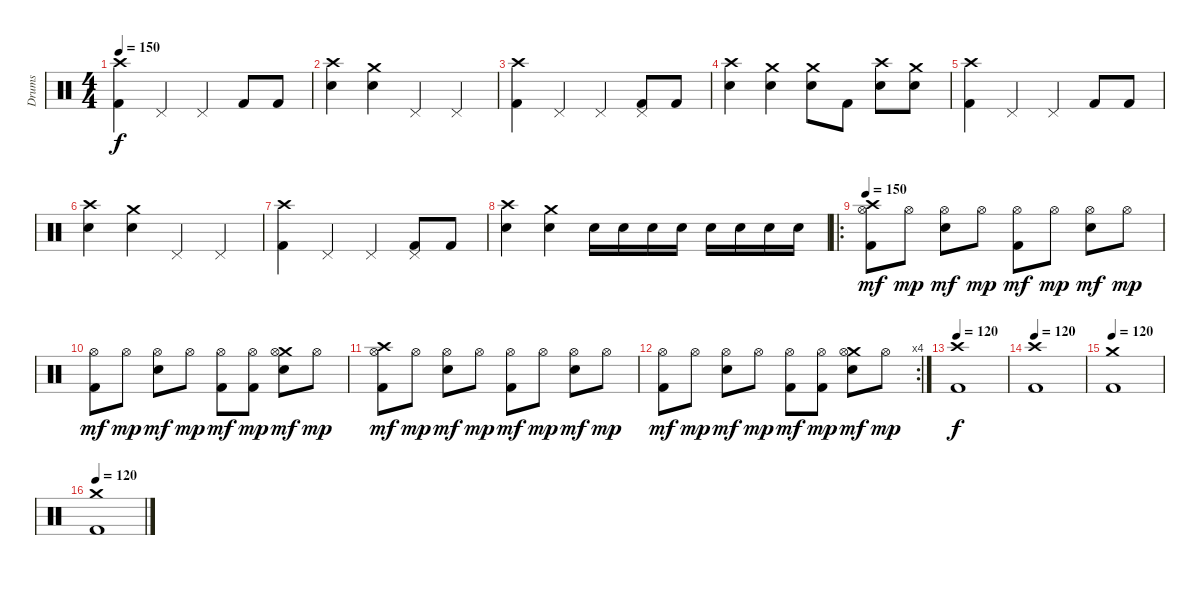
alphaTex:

\track ("Drums" "Drums") {instrument percussion}
\staff {score}
\articulation defaults
\ts (4 4)
\tempo 150
\tempo 130
\tempo 150
\clef neutral
\ks c
("Crash high (hit)" "Kick (hit) 2").4{dy f} "Pedal Hi-Hat (hit)".4 "Pedal Hi-Hat (hit)".4 "Kick (hit) 2".8 "Kick (hit) 2".8 |
("Crash high (hit)" "Electric Snare (hit)").4 ("Crash medium (hit)" "Electric Snare (hit)").4 "Pedal Hi-Hat (hit)".4 "Pedal Hi-Hat (hit)".4 |
("Crash high (hit)" "Kick (hit) 2").4 "Pedal Hi-Hat (hit)".4 "Pedal Hi-Hat (hit)".4 ("Pedal Hi-Hat (hit)" "Kick (hit) 2").8 "Kick (hit) 2".8 |
("Crash high (hit)" "Electric Snare (hit)").4 ("Crash medium (hit)" "Electric Snare (hit)").4 ("Crash medium (hit)" "Electric Snare (hit)").8 "Kick (hit) 2".8 ("Crash high (hit)" "Electric Snare (hit)").8 ("Crash medium (hit)" "Electric Snare (hit)").8 |
("Crash high (hit)" "Kick (hit) 2").4 "Pedal Hi-Hat (hit)".4 "Pedal Hi-Hat (hit)".4 "Kick (hit) 2".8 "Kick (hit) 2".8 |
("Crash high (hit)" "Electric Snare (hit)").4 ("Crash medium (hit)" "Electric Snare (hit)").4 "Pedal Hi-Hat (hit)".4 "Pedal Hi-Hat (hit)".4 |
("Crash high (hit)" "Kick (hit) 2").4 "Pedal Hi-Hat (hit)".4 "Pedal Hi-Hat (hit)".4 ("Pedal Hi-Hat (hit)" "Kick (hit) 2").8 "Kick (hit) 2".8 |
("Crash high (hit)" "Electric Snare (hit)").4 ("Crash medium (hit)" "Electric Snare (hit)").4 "Electric Snare (hit)".16 "Electric Snare (hit)".16 "Electric Snare (hit)".16 "Electric Snare (hit)".16 "Electric Snare (hit)".16 "Electric Snare (hit)".16 "Electric Snare (hit)".16 "Electric Snare (hit)".16 |
\ro
\tempo 150
("Crash high (hit)" "Hi-Hat (open)" "Kick (hit) 2").8{dy mf} "Hi-Hat (open)".8{dy mp} ("Hi-Hat (open)" "Electric Snare (hit)").8{dy mf} "Hi-Hat (open)".8{dy mp} ("Hi-Hat (open)" "Kick (hit) 2").8{dy mf} "Hi-Hat (open)".8{dy mp} ("Hi-Hat (open)" "Electric Snare (hit)").8{dy mf} "Hi-Hat (open)".8{dy mp} |
("Hi-Hat (open)" "Kick (hit) 2").8{dy mf} "Hi-Hat (open)".8{dy mp} ("Hi-Hat (open)" "Electric Snare (hit)").8{dy mf} "Hi-Hat (open)".8{dy mp} ("Hi-Hat (open)" "Kick (hit) 2").8{dy mf} ("Hi-Hat (open)" "Kick (hit) 2").8{dy mp} ("Crash medium (hit)" "Hi-Hat (open)" "Electric Snare (hit)").8{dy mf} "Hi-Hat (open)".8{dy mp} |
("Crash high (hit)" "Hi-Hat (open)" "Kick (hit) 2").8{dy mf} "Hi-Hat (open)".8{dy mp} ("Hi-Hat (open)" "Electric Snare (hit)").8{dy mf} "Hi-Hat (open)".8{dy mp} ("Hi-Hat (open)" "Kick (hit) 2").8{dy mf} "Hi-Hat (open)".8{dy mp} ("Hi-Hat (open)" "Electric Snare (hit)").8{dy mf} "Hi-Hat (open)".8{dy mp} |
\rc 4
("Hi-Hat (open)" "Kick (hit) 2").8{dy mf} "Hi-Hat (open)".8{dy mp} ("Hi-Hat (open)" "Electric Snare (hit)").8{dy mf} "Hi-Hat (open)".8{dy mp} ("Hi-Hat (open)" "Kick (hit) 2").8{dy mf} ("Hi-Hat (open)" "Kick (hit) 2").8{dy mp} ("Crash medium (hit)" "Hi-Hat (open)" "Electric Snare (hit)").8{dy mf} "Hi-Hat (open)".8{dy mp} |
\tempo 120
("Crash high (hit)" "Kick (hit) 2").1{dy f} |
\tempo 120
("Crash high (hit)" "Kick (hit) 2").1 |
\tempo 120
("Crash medium (hit)" "Kick (hit) 2").1 |
\tempo 120
("Crash medium (hit)" "Kick (hit) 2").1
